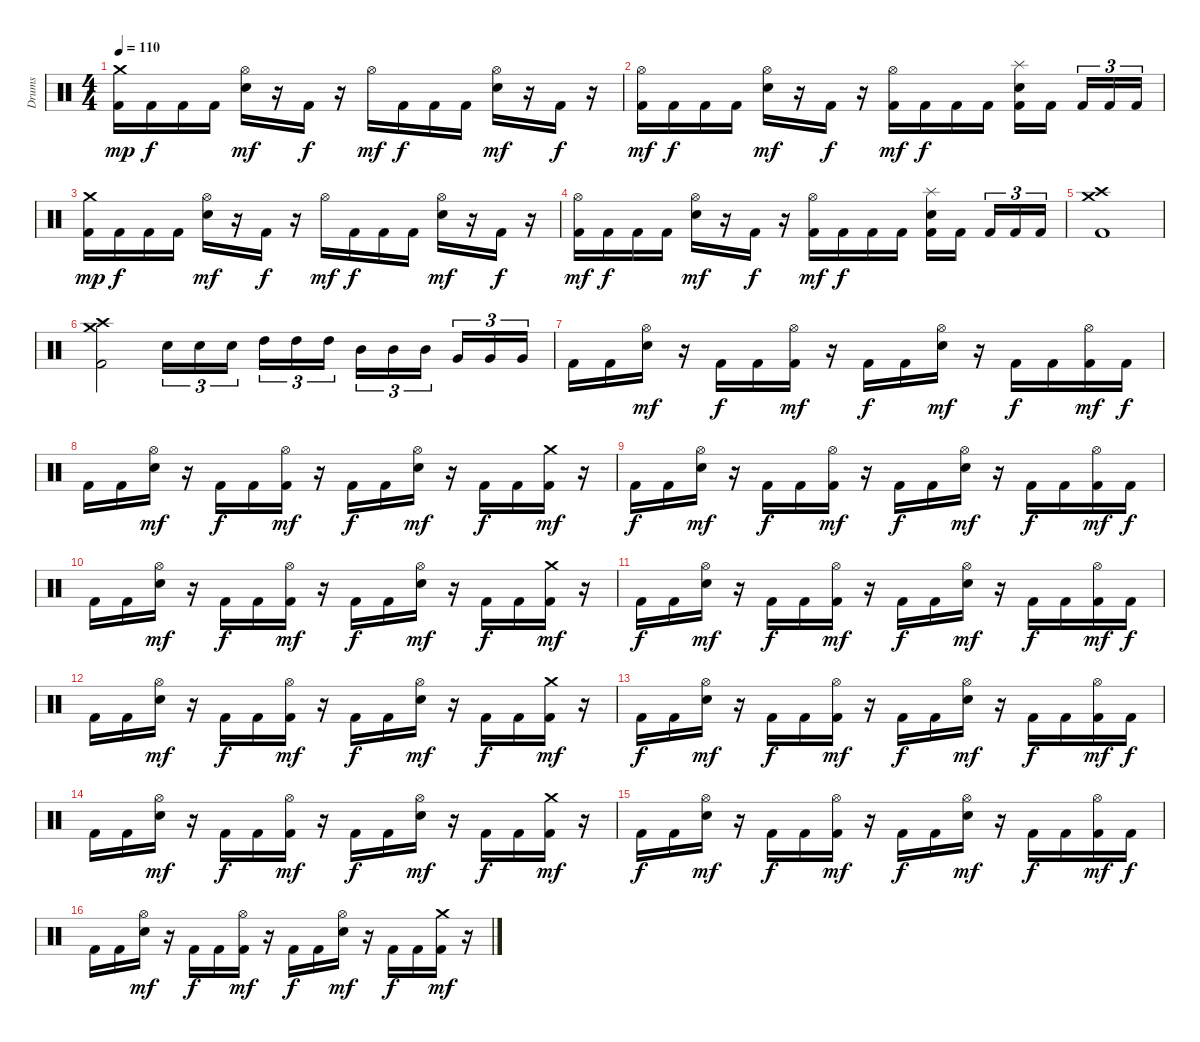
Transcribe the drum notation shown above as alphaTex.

\track ("Drums" "Drums") {instrument percussion}
\staff {score}
\articulation defaults
\ts (4 4)
\tempo 110
\clef neutral
\ks c
("Crash medium (hit)" "Kick (hit) 2").16{dy mp} "Kick (hit) 2".16{dy f} "Kick (hit) 2".16 "Kick (hit) 2".16 ("Hi-Hat (open)" "Electric Snare (hit)").16{dy mf} r.16 "Kick (hit) 2".16{dy f} r.16 "Hi-Hat (open)".16{dy mf} "Kick (hit) 2".16{dy f} "Kick (hit) 2".16 "Kick (hit) 2".16 ("Hi-Hat (open)" "Electric Snare (hit)").16{dy mf} r.16 "Kick (hit) 2".16{dy f} r.16 |
("Hi-Hat (open)" "Kick (hit) 2").16{dy mf} "Kick (hit) 2".16{dy f} "Kick (hit) 2".16 "Kick (hit) 2".16 ("Hi-Hat (open)" "Electric Snare (hit)").16{dy mf} r.16 "Kick (hit) 2".16{dy f} r.16 ("Hi-Hat (open)" "Kick (hit) 2").16{dy mf} "Kick (hit) 2".16{dy f} "Kick (hit) 2".16 "Kick (hit) 2".16 ("Splash (hit)" "Electric Snare (hit)" "Kick (hit) 2").16 "Kick (hit) 2".16 "Kick (hit) 2".16{tu (3 2)} "Kick (hit) 2".16{tu (3 2)} "Kick (hit) 2".16{tu (3 2)} |
("Crash medium (hit)" "Kick (hit) 2").16{dy mp} "Kick (hit) 2".16{dy f} "Kick (hit) 2".16 "Kick (hit) 2".16 ("Hi-Hat (open)" "Electric Snare (hit)").16{dy mf} r.16 "Kick (hit) 2".16{dy f} r.16 "Hi-Hat (open)".16{dy mf} "Kick (hit) 2".16{dy f} "Kick (hit) 2".16 "Kick (hit) 2".16 ("Hi-Hat (open)" "Electric Snare (hit)").16{dy mf} r.16 "Kick (hit) 2".16{dy f} r.16 |
("Hi-Hat (open)" "Kick (hit) 2").16{dy mf} "Kick (hit) 2".16{dy f} "Kick (hit) 2".16 "Kick (hit) 2".16 ("Hi-Hat (open)" "Electric Snare (hit)").16{dy mf} r.16 "Kick (hit) 2".16{dy f} r.16 ("Hi-Hat (open)" "Kick (hit) 2").16{dy mf} "Kick (hit) 2".16{dy f} "Kick (hit) 2".16 "Kick (hit) 2".16 ("Splash (hit)" "Electric Snare (hit)" "Kick (hit) 2").16 "Kick (hit) 2".16 "Kick (hit) 2".16{tu (3 2)} "Kick (hit) 2".16{tu (3 2)} "Kick (hit) 2".16{tu (3 2)} |
("Crash high (hit)" "Crash medium (hit)" "Kick (hit) 2").1 |
("Crash high (hit)" "Crash medium (hit)" "Kick (hit) 2").2 "Electric Snare (hit)".16{tu (3 2)} "Electric Snare (hit)".16{tu (3 2)} "Electric Snare (hit)".16{tu (3 2)} "High Tom (hit)".16{tu (3 2)} "High Tom (hit)".16{tu (3 2)} "High Tom (hit)".16{tu (3 2)} "Mid Tom (hit)".16{tu (3 2)} "Mid Tom (hit)".16{tu (3 2)} "Mid Tom (hit)".16{tu (3 2)} "Very Low Tom (hit)".16{tu (3 2)} "Very Low Tom (hit)".16{tu (3 2)} "Very Low Tom (hit)".16{tu (3 2)} |
"Kick (hit) 2".16 "Kick (hit) 2".16 ("Hi-Hat (open)" "Electric Snare (hit)").16{dy mf} r.16 "Kick (hit) 2".16{dy f} "Kick (hit) 2".16 ("Hi-Hat (open)" "Kick (hit) 2").16{dy mf} r.16 "Kick (hit) 2".16{dy f} "Kick (hit) 2".16 ("Hi-Hat (open)" "Electric Snare (hit)").16{dy mf} r.16 "Kick (hit) 2".16{dy f} "Kick (hit) 2".16 ("Hi-Hat (open)" "Kick (hit) 2").16{dy mf} "Kick (hit) 2".16{dy f} |
"Kick (hit) 2".16 "Kick (hit) 2".16 ("Hi-Hat (open)" "Electric Snare (hit)").16{dy mf} r.16 "Kick (hit) 2".16{dy f} "Kick (hit) 2".16 ("Hi-Hat (open)" "Kick (hit) 2").16{dy mf} r.16 "Kick (hit) 2".16{dy f} "Kick (hit) 2".16 ("Hi-Hat (open)" "Electric Snare (hit)").16{dy mf} r.16 "Kick (hit) 2".16{dy f} "Kick (hit) 2".16 ("Crash medium (hit)" "Kick (hit) 2").16{dy mf} r.16 |
"Kick (hit) 2".16{dy f} "Kick (hit) 2".16 ("Hi-Hat (open)" "Electric Snare (hit)").16{dy mf} r.16 "Kick (hit) 2".16{dy f} "Kick (hit) 2".16 ("Hi-Hat (open)" "Kick (hit) 2").16{dy mf} r.16 "Kick (hit) 2".16{dy f} "Kick (hit) 2".16 ("Hi-Hat (open)" "Electric Snare (hit)").16{dy mf} r.16 "Kick (hit) 2".16{dy f} "Kick (hit) 2".16 ("Hi-Hat (open)" "Kick (hit) 2").16{dy mf} "Kick (hit) 2".16{dy f} |
"Kick (hit) 2".16 "Kick (hit) 2".16 ("Hi-Hat (open)" "Electric Snare (hit)").16{dy mf} r.16 "Kick (hit) 2".16{dy f} "Kick (hit) 2".16 ("Hi-Hat (open)" "Kick (hit) 2").16{dy mf} r.16 "Kick (hit) 2".16{dy f} "Kick (hit) 2".16 ("Hi-Hat (open)" "Electric Snare (hit)").16{dy mf} r.16 "Kick (hit) 2".16{dy f} "Kick (hit) 2".16 ("Crash medium (hit)" "Kick (hit) 2").16{dy mf} r.16 |
"Kick (hit) 2".16{dy f} "Kick (hit) 2".16 ("Hi-Hat (open)" "Electric Snare (hit)").16{dy mf} r.16 "Kick (hit) 2".16{dy f} "Kick (hit) 2".16 ("Hi-Hat (open)" "Kick (hit) 2").16{dy mf} r.16 "Kick (hit) 2".16{dy f} "Kick (hit) 2".16 ("Hi-Hat (open)" "Electric Snare (hit)").16{dy mf} r.16 "Kick (hit) 2".16{dy f} "Kick (hit) 2".16 ("Hi-Hat (open)" "Kick (hit) 2").16{dy mf} "Kick (hit) 2".16{dy f} |
"Kick (hit) 2".16 "Kick (hit) 2".16 ("Hi-Hat (open)" "Electric Snare (hit)").16{dy mf} r.16 "Kick (hit) 2".16{dy f} "Kick (hit) 2".16 ("Hi-Hat (open)" "Kick (hit) 2").16{dy mf} r.16 "Kick (hit) 2".16{dy f} "Kick (hit) 2".16 ("Hi-Hat (open)" "Electric Snare (hit)").16{dy mf} r.16 "Kick (hit) 2".16{dy f} "Kick (hit) 2".16 ("Crash medium (hit)" "Kick (hit) 2").16{dy mf} r.16 |
"Kick (hit) 2".16{dy f} "Kick (hit) 2".16 ("Hi-Hat (open)" "Electric Snare (hit)").16{dy mf} r.16 "Kick (hit) 2".16{dy f} "Kick (hit) 2".16 ("Hi-Hat (open)" "Kick (hit) 2").16{dy mf} r.16 "Kick (hit) 2".16{dy f} "Kick (hit) 2".16 ("Hi-Hat (open)" "Electric Snare (hit)").16{dy mf} r.16 "Kick (hit) 2".16{dy f} "Kick (hit) 2".16 ("Hi-Hat (open)" "Kick (hit) 2").16{dy mf} "Kick (hit) 2".16{dy f} |
"Kick (hit) 2".16 "Kick (hit) 2".16 ("Hi-Hat (open)" "Electric Snare (hit)").16{dy mf} r.16 "Kick (hit) 2".16{dy f} "Kick (hit) 2".16 ("Hi-Hat (open)" "Kick (hit) 2").16{dy mf} r.16 "Kick (hit) 2".16{dy f} "Kick (hit) 2".16 ("Hi-Hat (open)" "Electric Snare (hit)").16{dy mf} r.16 "Kick (hit) 2".16{dy f} "Kick (hit) 2".16 ("Crash medium (hit)" "Kick (hit) 2").16{dy mf} r.16 |
"Kick (hit) 2".16{dy f} "Kick (hit) 2".16 ("Hi-Hat (open)" "Electric Snare (hit)").16{dy mf} r.16 "Kick (hit) 2".16{dy f} "Kick (hit) 2".16 ("Hi-Hat (open)" "Kick (hit) 2").16{dy mf} r.16 "Kick (hit) 2".16{dy f} "Kick (hit) 2".16 ("Hi-Hat (open)" "Electric Snare (hit)").16{dy mf} r.16 "Kick (hit) 2".16{dy f} "Kick (hit) 2".16 ("Hi-Hat (open)" "Kick (hit) 2").16{dy mf} "Kick (hit) 2".16{dy f} |
"Kick (hit) 2".16 "Kick (hit) 2".16 ("Hi-Hat (open)" "Electric Snare (hit)").16{dy mf} r.16 "Kick (hit) 2".16{dy f} "Kick (hit) 2".16 ("Hi-Hat (open)" "Kick (hit) 2").16{dy mf} r.16 "Kick (hit) 2".16{dy f} "Kick (hit) 2".16 ("Hi-Hat (open)" "Electric Snare (hit)").16{dy mf} r.16 "Kick (hit) 2".16{dy f} "Kick (hit) 2".16 ("Crash medium (hit)" "Kick (hit) 2").16{dy mf} r.16
